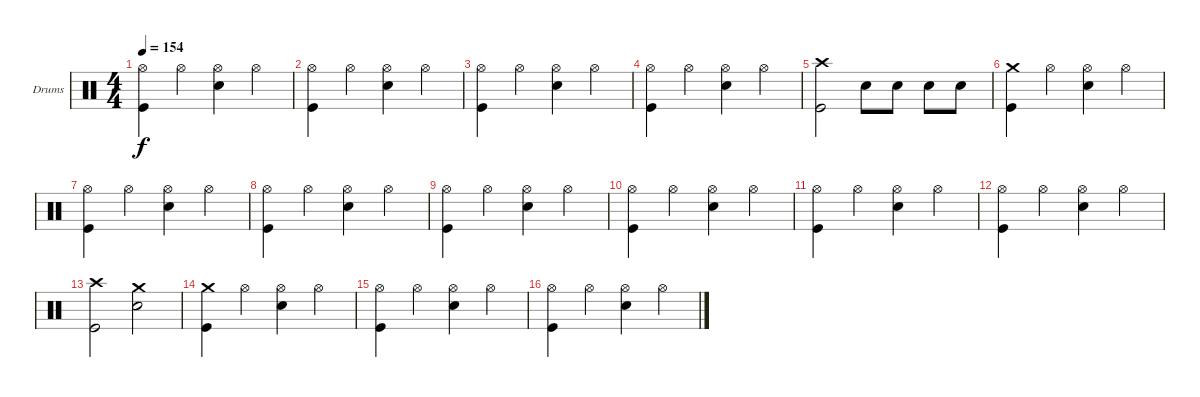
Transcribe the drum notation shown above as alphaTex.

\bracketExtendMode groupsimilarinstruments
\firstSystemTrackNameOrientation horizontal
\otherSystemsTrackNameOrientation horizontal
\track ("Drumkit (Christoph)" "Drums") {instrument percussion}
\staff {score}
\articulation defaults
\ts (4 4)
\tempo 154
\clef neutral
\ks c
("Hi-Hat (open)" "Kick (hit)").4{dy f} "Hi-Hat (open)".4 ("Hi-Hat (open)" "Snare (hit) 2").4 "Hi-Hat (open)".4 |
("Hi-Hat (open)" "Kick (hit)").4 "Hi-Hat (open)".4 ("Hi-Hat (open)" "Snare (hit) 2").4 "Hi-Hat (open)".4 |
("Hi-Hat (open)" "Kick (hit)").4 "Hi-Hat (open)".4 ("Hi-Hat (open)" "Snare (hit) 2").4 "Hi-Hat (open)".4 |
("Hi-Hat (open)" "Kick (hit)").4 "Hi-Hat (open)".4 ("Hi-Hat (open)" "Snare (hit) 2").4 "Hi-Hat (open)".4 |
("Crash high (hit)" "Kick (hit)").2 "Snare (hit) 2".8 "Snare (hit) 2".8 "Snare (hit) 2".8 "Snare (hit) 2".8 |
("Crash medium (hit)" "Kick (hit)").4 "Hi-Hat (open)".4 ("Hi-Hat (open)" "Snare (hit) 2").4 "Hi-Hat (open)".4 |
("Hi-Hat (open)" "Kick (hit)").4 "Hi-Hat (open)".4 ("Hi-Hat (open)" "Snare (hit) 2").4 "Hi-Hat (open)".4 |
("Hi-Hat (open)" "Kick (hit)").4 "Hi-Hat (open)".4 ("Hi-Hat (open)" "Snare (hit) 2").4 "Hi-Hat (open)".4 |
("Hi-Hat (open)" "Kick (hit)").4 "Hi-Hat (open)".4 ("Hi-Hat (open)" "Snare (hit) 2").4 "Hi-Hat (open)".4 |
("Hi-Hat (open)" "Kick (hit)").4 "Hi-Hat (open)".4 ("Hi-Hat (open)" "Snare (hit) 2").4 "Hi-Hat (open)".4 |
("Hi-Hat (open)" "Kick (hit)").4 "Hi-Hat (open)".4 ("Hi-Hat (open)" "Snare (hit) 2").4 "Hi-Hat (open)".4 |
("Hi-Hat (open)" "Kick (hit)").4 "Hi-Hat (open)".4 ("Hi-Hat (open)" "Snare (hit) 2").4 "Hi-Hat (open)".4 |
("Crash high (hit)" "Kick (hit)").2 ("Crash medium (hit)" "Snare (hit) 2").2 |
("Crash medium (hit)" "Kick (hit)").4 "Hi-Hat (open)".4 ("Hi-Hat (open)" "Snare (hit) 2").4 "Hi-Hat (open)".4 |
("Hi-Hat (open)" "Kick (hit)").4 "Hi-Hat (open)".4 ("Hi-Hat (open)" "Snare (hit) 2").4 "Hi-Hat (open)".4 |
("Hi-Hat (open)" "Kick (hit)").4 "Hi-Hat (open)".4 ("Hi-Hat (open)" "Snare (hit) 2").4 "Hi-Hat (open)".4
